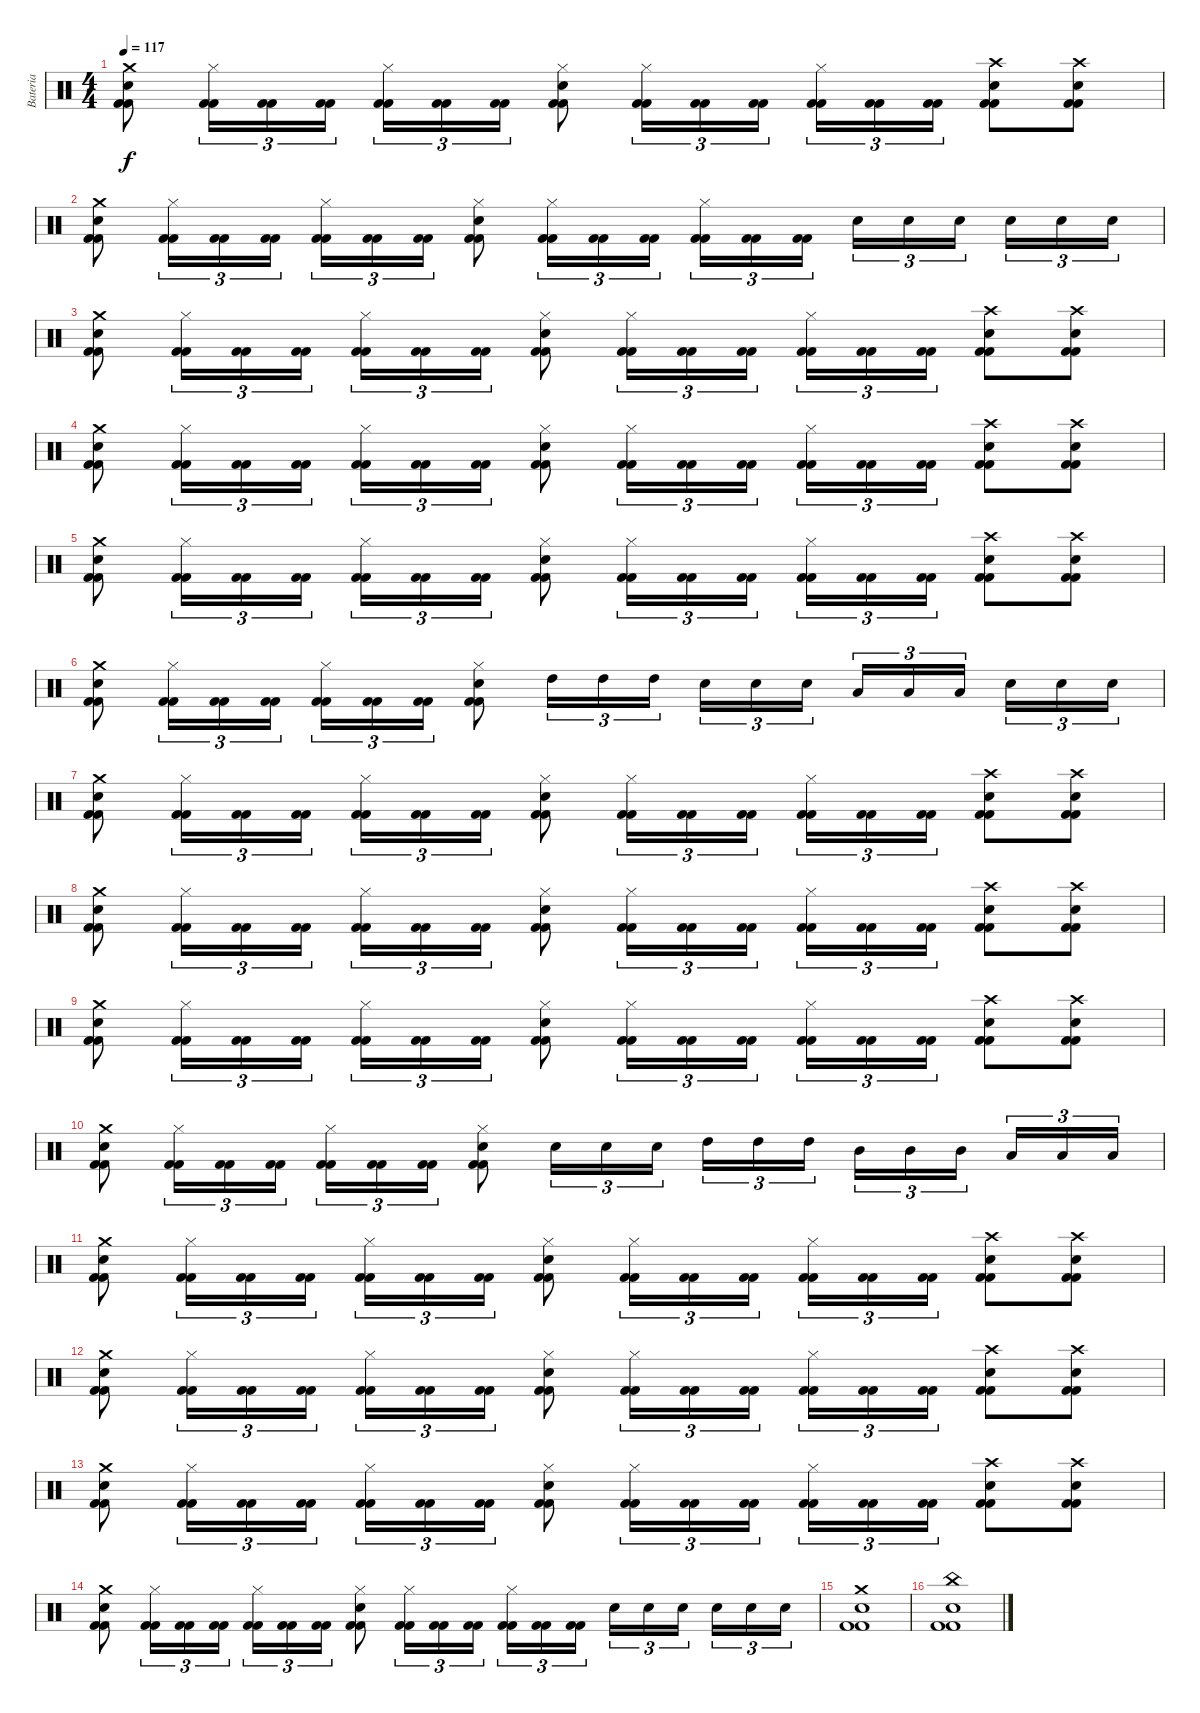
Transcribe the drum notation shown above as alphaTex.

\track ("Bateria" "Bateria") {instrument percussion}
\staff {score}
\articulation defaults
\ts (4 4)
\tempo 117
\clef neutral
\ks c
("Kick (hit) 2" "Kick (hit) 2" "Snare (hit) 2" "Crash medium (hit)").8{dy f} ("Kick (hit) 2" "Kick (hit) 2" "Hi-Hat (closed)").16{tu (3 2)} ("Kick (hit) 2" "Kick (hit) 2").16{tu (3 2)} ("Kick (hit) 2" "Kick (hit) 2").16{tu (3 2)} ("Kick (hit) 2" "Kick (hit) 2" "Hi-Hat (closed)").16{tu (3 2)} ("Kick (hit) 2" "Kick (hit) 2").16{tu (3 2)} ("Kick (hit) 2" "Kick (hit) 2").16{tu (3 2)} ("Kick (hit) 2" "Kick (hit) 2" "Snare (hit) 2" "Hi-Hat (closed)").8 ("Kick (hit) 2" "Kick (hit) 2" "Hi-Hat (closed)").16{tu (3 2)} ("Kick (hit) 2" "Kick (hit) 2").16{tu (3 2)} ("Kick (hit) 2" "Kick (hit) 2").16{tu (3 2)} ("Kick (hit) 2" "Kick (hit) 2" "Hi-Hat (closed)").16{tu (3 2)} ("Kick (hit) 2" "Kick (hit) 2").16{tu (3 2)} ("Kick (hit) 2" "Kick (hit) 2").16{tu (3 2)} ("Kick (hit) 2" "Kick (hit) 2" "Snare (hit) 2" "Crash high (hit)").8 ("Kick (hit) 2" "Kick (hit) 2" "Snare (hit) 2" "Crash high (hit)").8 |
("Kick (hit) 2" "Kick (hit) 2" "Snare (hit) 2" "Crash medium (hit)").8 ("Kick (hit) 2" "Kick (hit) 2" "Hi-Hat (closed)").16{tu (3 2)} ("Kick (hit) 2" "Kick (hit) 2").16{tu (3 2)} ("Kick (hit) 2" "Kick (hit) 2").16{tu (3 2)} ("Kick (hit) 2" "Kick (hit) 2" "Hi-Hat (closed)").16{tu (3 2)} ("Kick (hit) 2" "Kick (hit) 2").16{tu (3 2)} ("Kick (hit) 2" "Kick (hit) 2").16{tu (3 2)} ("Kick (hit) 2" "Kick (hit) 2" "Snare (hit) 2" "Hi-Hat (closed)").8 ("Kick (hit) 2" "Kick (hit) 2" "Hi-Hat (closed)").16{tu (3 2)} ("Kick (hit) 2" "Kick (hit) 2").16{tu (3 2)} ("Kick (hit) 2" "Kick (hit) 2").16{tu (3 2)} ("Kick (hit) 2" "Kick (hit) 2" "Hi-Hat (closed)").16{tu (3 2)} ("Kick (hit) 2" "Kick (hit) 2").16{tu (3 2)} ("Kick (hit) 2" "Kick (hit) 2").16{tu (3 2)} "Snare (hit) 2".16{tu (3 2)} "Snare (hit) 2".16{tu (3 2)} "Snare (hit) 2".16{tu (3 2)} "Snare (hit) 2".16{tu (3 2)} "Snare (hit) 2".16{tu (3 2)} "Snare (hit) 2".16{tu (3 2)} |
("Kick (hit) 2" "Kick (hit) 2" "Snare (hit) 2" "Crash medium (hit)").8 ("Kick (hit) 2" "Kick (hit) 2" "Hi-Hat (closed)").16{tu (3 2)} ("Kick (hit) 2" "Kick (hit) 2").16{tu (3 2)} ("Kick (hit) 2" "Kick (hit) 2").16{tu (3 2)} ("Kick (hit) 2" "Kick (hit) 2" "Hi-Hat (closed)").16{tu (3 2)} ("Kick (hit) 2" "Kick (hit) 2").16{tu (3 2)} ("Kick (hit) 2" "Kick (hit) 2").16{tu (3 2)} ("Kick (hit) 2" "Kick (hit) 2" "Snare (hit) 2" "Hi-Hat (closed)").8 ("Kick (hit) 2" "Kick (hit) 2" "Hi-Hat (closed)").16{tu (3 2)} ("Kick (hit) 2" "Kick (hit) 2").16{tu (3 2)} ("Kick (hit) 2" "Kick (hit) 2").16{tu (3 2)} ("Kick (hit) 2" "Kick (hit) 2" "Hi-Hat (closed)").16{tu (3 2)} ("Kick (hit) 2" "Kick (hit) 2").16{tu (3 2)} ("Kick (hit) 2" "Kick (hit) 2").16{tu (3 2)} ("Kick (hit) 2" "Kick (hit) 2" "Snare (hit) 2" "Crash high (hit)").8 ("Kick (hit) 2" "Kick (hit) 2" "Snare (hit) 2" "Crash high (hit)").8 |
("Kick (hit) 2" "Kick (hit) 2" "Snare (hit) 2" "Crash medium (hit)").8 ("Kick (hit) 2" "Kick (hit) 2" "Hi-Hat (closed)").16{tu (3 2)} ("Kick (hit) 2" "Kick (hit) 2").16{tu (3 2)} ("Kick (hit) 2" "Kick (hit) 2").16{tu (3 2)} ("Kick (hit) 2" "Kick (hit) 2" "Hi-Hat (closed)").16{tu (3 2)} ("Kick (hit) 2" "Kick (hit) 2").16{tu (3 2)} ("Kick (hit) 2" "Kick (hit) 2").16{tu (3 2)} ("Kick (hit) 2" "Kick (hit) 2" "Snare (hit) 2" "Hi-Hat (closed)").8 ("Kick (hit) 2" "Kick (hit) 2" "Hi-Hat (closed)").16{tu (3 2)} ("Kick (hit) 2" "Kick (hit) 2").16{tu (3 2)} ("Kick (hit) 2" "Kick (hit) 2").16{tu (3 2)} ("Kick (hit) 2" "Kick (hit) 2" "Hi-Hat (closed)").16{tu (3 2)} ("Kick (hit) 2" "Kick (hit) 2").16{tu (3 2)} ("Kick (hit) 2" "Kick (hit) 2").16{tu (3 2)} ("Kick (hit) 2" "Kick (hit) 2" "Snare (hit) 2" "Crash high (hit)").8 ("Kick (hit) 2" "Kick (hit) 2" "Snare (hit) 2" "Crash high (hit)").8 |
("Kick (hit) 2" "Kick (hit) 2" "Snare (hit) 2" "Crash medium (hit)").8 ("Kick (hit) 2" "Kick (hit) 2" "Hi-Hat (closed)").16{tu (3 2)} ("Kick (hit) 2" "Kick (hit) 2").16{tu (3 2)} ("Kick (hit) 2" "Kick (hit) 2").16{tu (3 2)} ("Kick (hit) 2" "Kick (hit) 2" "Hi-Hat (closed)").16{tu (3 2)} ("Kick (hit) 2" "Kick (hit) 2").16{tu (3 2)} ("Kick (hit) 2" "Kick (hit) 2").16{tu (3 2)} ("Kick (hit) 2" "Kick (hit) 2" "Snare (hit) 2" "Hi-Hat (closed)").8 ("Kick (hit) 2" "Kick (hit) 2" "Hi-Hat (closed)").16{tu (3 2)} ("Kick (hit) 2" "Kick (hit) 2").16{tu (3 2)} ("Kick (hit) 2" "Kick (hit) 2").16{tu (3 2)} ("Kick (hit) 2" "Kick (hit) 2" "Hi-Hat (closed)").16{tu (3 2)} ("Kick (hit) 2" "Kick (hit) 2").16{tu (3 2)} ("Kick (hit) 2" "Kick (hit) 2").16{tu (3 2)} ("Kick (hit) 2" "Kick (hit) 2" "Snare (hit) 2" "Crash high (hit)").8 ("Kick (hit) 2" "Kick (hit) 2" "Snare (hit) 2" "Crash high (hit)").8 |
("Kick (hit) 2" "Kick (hit) 2" "Snare (hit) 2" "Crash medium (hit)").8 ("Kick (hit) 2" "Kick (hit) 2" "Hi-Hat (closed)").16{tu (3 2)} ("Kick (hit) 2" "Kick (hit) 2").16{tu (3 2)} ("Kick (hit) 2" "Kick (hit) 2").16{tu (3 2)} ("Kick (hit) 2" "Kick (hit) 2" "Hi-Hat (closed)").16{tu (3 2)} ("Kick (hit) 2" "Kick (hit) 2").16{tu (3 2)} ("Kick (hit) 2" "Kick (hit) 2").16{tu (3 2)} ("Kick (hit) 2" "Kick (hit) 2" "Snare (hit) 2" "Hi-Hat (closed)").8 "High Tom (hit)".16{tu (3 2)} "High Tom (hit)".16{tu (3 2)} "High Tom (hit)".16{tu (3 2)} "Snare (hit) 2".16{tu (3 2)} "Snare (hit) 2".16{tu (3 2)} "Snare (hit) 2".16{tu (3 2)} "Low Tom (hit)".16{tu (3 2)} "Low Tom (hit)".16{tu (3 2)} "Low Tom (hit)".16{tu (3 2)} "Snare (hit) 2".16{tu (3 2)} "Snare (hit) 2".16{tu (3 2)} "Snare (hit) 2".16{tu (3 2)} |
("Kick (hit) 2" "Kick (hit) 2" "Snare (hit) 2" "Crash medium (hit)").8 ("Kick (hit) 2" "Kick (hit) 2" "Hi-Hat (closed)").16{tu (3 2)} ("Kick (hit) 2" "Kick (hit) 2").16{tu (3 2)} ("Kick (hit) 2" "Kick (hit) 2").16{tu (3 2)} ("Kick (hit) 2" "Kick (hit) 2" "Hi-Hat (closed)").16{tu (3 2)} ("Kick (hit) 2" "Kick (hit) 2").16{tu (3 2)} ("Kick (hit) 2" "Kick (hit) 2").16{tu (3 2)} ("Kick (hit) 2" "Kick (hit) 2" "Snare (hit) 2" "Hi-Hat (closed)").8 ("Kick (hit) 2" "Kick (hit) 2" "Hi-Hat (closed)").16{tu (3 2)} ("Kick (hit) 2" "Kick (hit) 2").16{tu (3 2)} ("Kick (hit) 2" "Kick (hit) 2").16{tu (3 2)} ("Kick (hit) 2" "Kick (hit) 2" "Hi-Hat (closed)").16{tu (3 2)} ("Kick (hit) 2" "Kick (hit) 2").16{tu (3 2)} ("Kick (hit) 2" "Kick (hit) 2").16{tu (3 2)} ("Kick (hit) 2" "Kick (hit) 2" "Snare (hit) 2" "Crash high (hit)").8 ("Kick (hit) 2" "Kick (hit) 2" "Snare (hit) 2" "Crash high (hit)").8 |
("Kick (hit) 2" "Kick (hit) 2" "Snare (hit) 2" "Crash medium (hit)").8 ("Kick (hit) 2" "Kick (hit) 2" "Hi-Hat (closed)").16{tu (3 2)} ("Kick (hit) 2" "Kick (hit) 2").16{tu (3 2)} ("Kick (hit) 2" "Kick (hit) 2").16{tu (3 2)} ("Kick (hit) 2" "Kick (hit) 2" "Hi-Hat (closed)").16{tu (3 2)} ("Kick (hit) 2" "Kick (hit) 2").16{tu (3 2)} ("Kick (hit) 2" "Kick (hit) 2").16{tu (3 2)} ("Kick (hit) 2" "Kick (hit) 2" "Snare (hit) 2" "Hi-Hat (closed)").8 ("Kick (hit) 2" "Kick (hit) 2" "Hi-Hat (closed)").16{tu (3 2)} ("Kick (hit) 2" "Kick (hit) 2").16{tu (3 2)} ("Kick (hit) 2" "Kick (hit) 2").16{tu (3 2)} ("Kick (hit) 2" "Kick (hit) 2" "Hi-Hat (closed)").16{tu (3 2)} ("Kick (hit) 2" "Kick (hit) 2").16{tu (3 2)} ("Kick (hit) 2" "Kick (hit) 2").16{tu (3 2)} ("Kick (hit) 2" "Kick (hit) 2" "Snare (hit) 2" "Crash high (hit)").8 ("Kick (hit) 2" "Kick (hit) 2" "Snare (hit) 2" "Crash high (hit)").8 |
("Kick (hit) 2" "Kick (hit) 2" "Snare (hit) 2" "Crash medium (hit)").8 ("Kick (hit) 2" "Kick (hit) 2" "Hi-Hat (closed)").16{tu (3 2)} ("Kick (hit) 2" "Kick (hit) 2").16{tu (3 2)} ("Kick (hit) 2" "Kick (hit) 2").16{tu (3 2)} ("Kick (hit) 2" "Kick (hit) 2" "Hi-Hat (closed)").16{tu (3 2)} ("Kick (hit) 2" "Kick (hit) 2").16{tu (3 2)} ("Kick (hit) 2" "Kick (hit) 2").16{tu (3 2)} ("Kick (hit) 2" "Kick (hit) 2" "Snare (hit) 2" "Hi-Hat (closed)").8 ("Kick (hit) 2" "Kick (hit) 2" "Hi-Hat (closed)").16{tu (3 2)} ("Kick (hit) 2" "Kick (hit) 2").16{tu (3 2)} ("Kick (hit) 2" "Kick (hit) 2").16{tu (3 2)} ("Kick (hit) 2" "Kick (hit) 2" "Hi-Hat (closed)").16{tu (3 2)} ("Kick (hit) 2" "Kick (hit) 2").16{tu (3 2)} ("Kick (hit) 2" "Kick (hit) 2").16{tu (3 2)} ("Kick (hit) 2" "Kick (hit) 2" "Snare (hit) 2" "Crash high (hit)").8 ("Kick (hit) 2" "Kick (hit) 2" "Snare (hit) 2" "Crash high (hit)").8 |
("Kick (hit) 2" "Kick (hit) 2" "Snare (hit) 2" "Crash medium (hit)").8 ("Kick (hit) 2" "Kick (hit) 2" "Hi-Hat (closed)").16{tu (3 2)} ("Kick (hit) 2" "Kick (hit) 2").16{tu (3 2)} ("Kick (hit) 2" "Kick (hit) 2").16{tu (3 2)} ("Kick (hit) 2" "Kick (hit) 2" "Hi-Hat (closed)").16{tu (3 2)} ("Kick (hit) 2" "Kick (hit) 2").16{tu (3 2)} ("Kick (hit) 2" "Kick (hit) 2").16{tu (3 2)} ("Kick (hit) 2" "Kick (hit) 2" "Snare (hit) 2" "Hi-Hat (closed)").8 "Snare (hit) 2".16{tu (3 2)} "Snare (hit) 2".16{tu (3 2)} "Snare (hit) 2".16{tu (3 2)} "High Tom (hit)".16{tu (3 2)} "High Tom (hit)".16{tu (3 2)} "High Tom (hit)".16{tu (3 2)} "Mid Tom (hit)".16{tu (3 2)} "Mid Tom (hit)".16{tu (3 2)} "Mid Tom (hit)".16{tu (3 2)} "Low Tom (hit)".16{tu (3 2)} "Low Tom (hit)".16{tu (3 2)} "Low Tom (hit)".16{tu (3 2)} |
("Kick (hit) 2" "Kick (hit) 2" "Snare (hit) 2" "Crash medium (hit)").8 ("Kick (hit) 2" "Kick (hit) 2" "Hi-Hat (closed)").16{tu (3 2)} ("Kick (hit) 2" "Kick (hit) 2").16{tu (3 2)} ("Kick (hit) 2" "Kick (hit) 2").16{tu (3 2)} ("Kick (hit) 2" "Kick (hit) 2" "Hi-Hat (closed)").16{tu (3 2)} ("Kick (hit) 2" "Kick (hit) 2").16{tu (3 2)} ("Kick (hit) 2" "Kick (hit) 2").16{tu (3 2)} ("Kick (hit) 2" "Kick (hit) 2" "Snare (hit) 2" "Hi-Hat (closed)").8 ("Kick (hit) 2" "Kick (hit) 2" "Hi-Hat (closed)").16{tu (3 2)} ("Kick (hit) 2" "Kick (hit) 2").16{tu (3 2)} ("Kick (hit) 2" "Kick (hit) 2").16{tu (3 2)} ("Kick (hit) 2" "Kick (hit) 2" "Hi-Hat (closed)").16{tu (3 2)} ("Kick (hit) 2" "Kick (hit) 2").16{tu (3 2)} ("Kick (hit) 2" "Kick (hit) 2").16{tu (3 2)} ("Kick (hit) 2" "Kick (hit) 2" "Snare (hit) 2" "Crash high (hit)").8 ("Kick (hit) 2" "Kick (hit) 2" "Snare (hit) 2" "Crash high (hit)").8 |
("Kick (hit) 2" "Kick (hit) 2" "Snare (hit) 2" "Crash medium (hit)").8 ("Kick (hit) 2" "Kick (hit) 2" "Hi-Hat (closed)").16{tu (3 2)} ("Kick (hit) 2" "Kick (hit) 2").16{tu (3 2)} ("Kick (hit) 2" "Kick (hit) 2").16{tu (3 2)} ("Kick (hit) 2" "Kick (hit) 2" "Hi-Hat (closed)").16{tu (3 2)} ("Kick (hit) 2" "Kick (hit) 2").16{tu (3 2)} ("Kick (hit) 2" "Kick (hit) 2").16{tu (3 2)} ("Kick (hit) 2" "Kick (hit) 2" "Snare (hit) 2" "Hi-Hat (closed)").8 ("Kick (hit) 2" "Kick (hit) 2" "Hi-Hat (closed)").16{tu (3 2)} ("Kick (hit) 2" "Kick (hit) 2").16{tu (3 2)} ("Kick (hit) 2" "Kick (hit) 2").16{tu (3 2)} ("Kick (hit) 2" "Kick (hit) 2" "Hi-Hat (closed)").16{tu (3 2)} ("Kick (hit) 2" "Kick (hit) 2").16{tu (3 2)} ("Kick (hit) 2" "Kick (hit) 2").16{tu (3 2)} ("Kick (hit) 2" "Kick (hit) 2" "Snare (hit) 2" "Crash high (hit)").8 ("Kick (hit) 2" "Kick (hit) 2" "Snare (hit) 2" "Crash high (hit)").8 |
("Kick (hit) 2" "Kick (hit) 2" "Snare (hit) 2" "Crash medium (hit)").8 ("Kick (hit) 2" "Kick (hit) 2" "Hi-Hat (closed)").16{tu (3 2)} ("Kick (hit) 2" "Kick (hit) 2").16{tu (3 2)} ("Kick (hit) 2" "Kick (hit) 2").16{tu (3 2)} ("Kick (hit) 2" "Kick (hit) 2" "Hi-Hat (closed)").16{tu (3 2)} ("Kick (hit) 2" "Kick (hit) 2").16{tu (3 2)} ("Kick (hit) 2" "Kick (hit) 2").16{tu (3 2)} ("Kick (hit) 2" "Kick (hit) 2" "Snare (hit) 2" "Hi-Hat (closed)").8 ("Kick (hit) 2" "Kick (hit) 2" "Hi-Hat (closed)").16{tu (3 2)} ("Kick (hit) 2" "Kick (hit) 2").16{tu (3 2)} ("Kick (hit) 2" "Kick (hit) 2").16{tu (3 2)} ("Kick (hit) 2" "Kick (hit) 2" "Hi-Hat (closed)").16{tu (3 2)} ("Kick (hit) 2" "Kick (hit) 2").16{tu (3 2)} ("Kick (hit) 2" "Kick (hit) 2").16{tu (3 2)} ("Kick (hit) 2" "Kick (hit) 2" "Snare (hit) 2" "Crash high (hit)").8 ("Kick (hit) 2" "Kick (hit) 2" "Snare (hit) 2" "Crash high (hit)").8 |
("Kick (hit) 2" "Kick (hit) 2" "Snare (hit) 2" "Crash medium (hit)").8 ("Kick (hit) 2" "Kick (hit) 2" "Hi-Hat (closed)").16{tu (3 2)} ("Kick (hit) 2" "Kick (hit) 2").16{tu (3 2)} ("Kick (hit) 2" "Kick (hit) 2").16{tu (3 2)} ("Kick (hit) 2" "Kick (hit) 2" "Hi-Hat (closed)").16{tu (3 2)} ("Kick (hit) 2" "Kick (hit) 2").16{tu (3 2)} ("Kick (hit) 2" "Kick (hit) 2").16{tu (3 2)} ("Kick (hit) 2" "Kick (hit) 2" "Snare (hit) 2" "Hi-Hat (closed)").8 ("Kick (hit) 2" "Kick (hit) 2" "Hi-Hat (closed)").16{tu (3 2)} ("Kick (hit) 2" "Kick (hit) 2").16{tu (3 2)} ("Kick (hit) 2" "Kick (hit) 2").16{tu (3 2)} ("Kick (hit) 2" "Kick (hit) 2" "Hi-Hat (closed)").16{tu (3 2)} ("Kick (hit) 2" "Kick (hit) 2").16{tu (3 2)} ("Kick (hit) 2" "Kick (hit) 2").16{tu (3 2)} "Snare (hit) 2".16{tu (3 2)} "Snare (hit) 2".16{tu (3 2)} "Snare (hit) 2".16{tu (3 2)} "Snare (hit) 2".16{tu (3 2)} "Snare (hit) 2".16{tu (3 2)} "Snare (hit) 2".16{tu (3 2)} |
("Kick (hit) 2" "Kick (hit) 2" "Snare (hit) 2" "Crash medium (hit)").1 |
("Kick (hit) 2" "Kick (hit) 2" "Snare (hit) 2" "China (hit)").1
